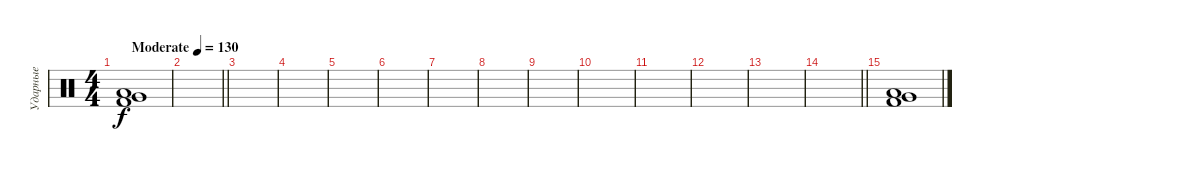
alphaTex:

\track ("Ударные" "Ударные") {instrument percussion}
\staff {score}
\articulation defaults
\ts (4 4)
\tempo (130 "Moderate")
\clef neutral
\ks c
("Low Floor Tom (hit)" "Kick (hit) 2" "Very Low Tom (hit)").1{dy f} |
\barLineRight lightlight
|
|
|
|
|
|
|
|
|
|
|
|
\barLineRight lightlight
|
("Low Floor Tom (hit)" "Kick (hit) 2" "Very Low Tom (hit)").1
